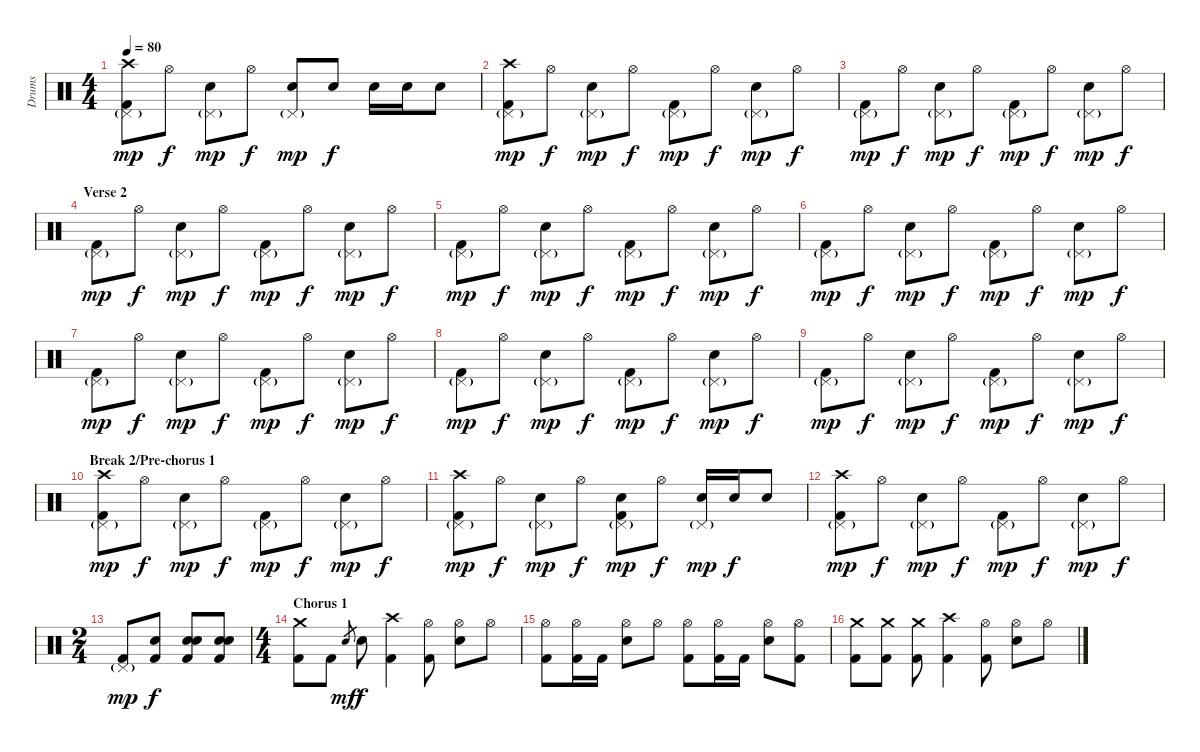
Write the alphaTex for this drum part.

\track ("Drums" "Drums") {instrument percussion}
\staff {score}
\articulation defaults
\ts (4 4)
\tempo 80
\clef neutral
\ks c
("Pedal Hi-Hat (hit)"{g} "Crash high (hit)" "Kick (hit) 2").8{dy mp} "Hi-Hat (open)".8{dy f} ("Pedal Hi-Hat (hit)"{g} "Electric Snare (hit)").8{dy mp} "Hi-Hat (open)".8{dy f} ("Pedal Hi-Hat (hit)"{g} "Electric Snare (hit)").8{dy mp} "Electric Snare (hit)".8{dy f} "Electric Snare (hit)".16 "Electric Snare (hit)".16 "Electric Snare (hit)".8 |
("Pedal Hi-Hat (hit)"{g} "Crash high (hit)" "Kick (hit) 2").8{dy mp} "Hi-Hat (open)".8{dy f} ("Pedal Hi-Hat (hit)"{g} "Electric Snare (hit)").8{dy mp} "Hi-Hat (open)".8{dy f} ("Pedal Hi-Hat (hit)"{g} "Kick (hit) 2").8{dy mp} "Hi-Hat (open)".8{dy f} ("Pedal Hi-Hat (hit)"{g} "Electric Snare (hit)").8{dy mp} "Hi-Hat (open)".8{dy f} |
("Pedal Hi-Hat (hit)"{g} "Kick (hit) 2").8{dy mp} "Hi-Hat (open)".8{dy f} ("Pedal Hi-Hat (hit)"{g} "Electric Snare (hit)").8{dy mp} "Hi-Hat (open)".8{dy f} ("Pedal Hi-Hat (hit)"{g} "Kick (hit) 2").8{dy mp} "Hi-Hat (open)".8{dy f} ("Pedal Hi-Hat (hit)"{g} "Electric Snare (hit)").8{dy mp} "Hi-Hat (open)".8{dy f} |
\section ("" "Verse 2")
("Pedal Hi-Hat (hit)"{g} "Kick (hit) 2").8{dy mp} "Hi-Hat (open)".8{dy f} ("Pedal Hi-Hat (hit)"{g} "Electric Snare (hit)").8{dy mp} "Hi-Hat (open)".8{dy f} ("Pedal Hi-Hat (hit)"{g} "Kick (hit) 2").8{dy mp} "Hi-Hat (open)".8{dy f} ("Pedal Hi-Hat (hit)"{g} "Electric Snare (hit)").8{dy mp} "Hi-Hat (open)".8{dy f} |
("Pedal Hi-Hat (hit)"{g} "Kick (hit) 2").8{dy mp} "Hi-Hat (open)".8{dy f} ("Pedal Hi-Hat (hit)"{g} "Electric Snare (hit)").8{dy mp} "Hi-Hat (open)".8{dy f} ("Pedal Hi-Hat (hit)"{g} "Kick (hit) 2").8{dy mp} "Hi-Hat (open)".8{dy f} ("Pedal Hi-Hat (hit)"{g} "Electric Snare (hit)").8{dy mp} "Hi-Hat (open)".8{dy f} |
("Pedal Hi-Hat (hit)"{g} "Kick (hit) 2").8{dy mp} "Hi-Hat (open)".8{dy f} ("Pedal Hi-Hat (hit)"{g} "Electric Snare (hit)").8{dy mp} "Hi-Hat (open)".8{dy f} ("Pedal Hi-Hat (hit)"{g} "Kick (hit) 2").8{dy mp} "Hi-Hat (open)".8{dy f} ("Pedal Hi-Hat (hit)"{g} "Electric Snare (hit)").8{dy mp} "Hi-Hat (open)".8{dy f} |
("Pedal Hi-Hat (hit)"{g} "Kick (hit) 2").8{dy mp} "Hi-Hat (open)".8{dy f} ("Pedal Hi-Hat (hit)"{g} "Electric Snare (hit)").8{dy mp} "Hi-Hat (open)".8{dy f} ("Pedal Hi-Hat (hit)"{g} "Kick (hit) 2").8{dy mp} "Hi-Hat (open)".8{dy f} ("Pedal Hi-Hat (hit)"{g} "Electric Snare (hit)").8{dy mp} "Hi-Hat (open)".8{dy f} |
("Pedal Hi-Hat (hit)"{g} "Kick (hit) 2").8{dy mp} "Hi-Hat (open)".8{dy f} ("Pedal Hi-Hat (hit)"{g} "Electric Snare (hit)").8{dy mp} "Hi-Hat (open)".8{dy f} ("Pedal Hi-Hat (hit)"{g} "Kick (hit) 2").8{dy mp} "Hi-Hat (open)".8{dy f} ("Pedal Hi-Hat (hit)"{g} "Electric Snare (hit)").8{dy mp} "Hi-Hat (open)".8{dy f} |
("Pedal Hi-Hat (hit)"{g} "Kick (hit) 2").8{dy mp} "Hi-Hat (open)".8{dy f} ("Pedal Hi-Hat (hit)"{g} "Electric Snare (hit)").8{dy mp} "Hi-Hat (open)".8{dy f} ("Pedal Hi-Hat (hit)"{g} "Kick (hit) 2").8{dy mp} "Hi-Hat (open)".8{dy f} ("Pedal Hi-Hat (hit)"{g} "Electric Snare (hit)").8{dy mp} "Hi-Hat (open)".8{dy f} |
\section ("" "Break 2/Pre-chorus 1")
("Pedal Hi-Hat (hit)"{g} "Crash high (hit)" "Kick (hit) 2").8{dy mp} "Hi-Hat (open)".8{dy f} ("Pedal Hi-Hat (hit)"{g} "Electric Snare (hit)").8{dy mp} "Hi-Hat (open)".8{dy f} ("Pedal Hi-Hat (hit)"{g} "Kick (hit) 2").8{dy mp} "Hi-Hat (open)".8{dy f} ("Pedal Hi-Hat (hit)"{g} "Electric Snare (hit)").8{dy mp} "Hi-Hat (open)".8{dy f} |
("Pedal Hi-Hat (hit)"{g} "Crash high (hit)" "Kick (hit) 2").8{dy mp} "Hi-Hat (open)".8{dy f} ("Pedal Hi-Hat (hit)"{g} "Electric Snare (hit)").8{dy mp} "Hi-Hat (open)".8{dy f} ("Pedal Hi-Hat (hit)"{g} "Electric Snare (hit)" "Kick (hit) 2").8{dy mp} "Hi-Hat (open)".8{dy f} ("Pedal Hi-Hat (hit)"{g} "Electric Snare (hit)").16{dy mp} "Electric Snare (hit)".16{dy f} "Electric Snare (hit)".8 |
("Pedal Hi-Hat (hit)"{g} "Crash high (hit)" "Kick (hit) 2").8{dy mp} "Hi-Hat (open)".8{dy f} ("Pedal Hi-Hat (hit)"{g} "Electric Snare (hit)").8{dy mp} "Hi-Hat (open)".8{dy f} ("Pedal Hi-Hat (hit)"{g} "Kick (hit) 2").8{dy mp} "Hi-Hat (open)".8{dy f} ("Pedal Hi-Hat (hit)"{g} "Electric Snare (hit)").8{dy mp} "Hi-Hat (open)".8{dy f} |
\ts (2 4)
("Pedal Hi-Hat (hit)"{g} "Kick (hit) 2").8{dy mp} ("Electric Snare (hit)" "Kick (hit) 2").8{dy f} ("Snare (hit) 2" "Electric Snare (hit)" "Kick (hit) 2").8 ("Snare (hit) 2" "Electric Snare (hit)" "Kick (hit) 2").8 |
\ts (4 4)
\section ("" "Chorus 1")
("Crash medium (hit)" "Kick (hit) 2").8 "Kick (hit) 2".8 "Electric Snare (hit)".8{gr dy mf} "Electric Snare (hit)".8{dy f} ("Crash high (hit)" "Kick (hit) 2").4 ("Hi-Hat (open)" "Kick (hit) 2").8 ("Hi-Hat (open)" "Electric Snare (hit)").8 "Hi-Hat (open)".8 |
("Hi-Hat (open)" "Kick (hit) 2").8 ("Hi-Hat (open)" "Kick (hit) 2").16 "Kick (hit) 2".16 ("Hi-Hat (open)" "Electric Snare (hit)").8 "Hi-Hat (open)".8 ("Hi-Hat (open)" "Kick (hit) 2").8 ("Hi-Hat (open)" "Kick (hit) 2").16 "Kick (hit) 2".16 ("Hi-Hat (open)" "Electric Snare (hit)").8 ("Hi-Hat (open)" "Kick (hit) 2").8 |
("Crash medium (hit)" "Kick (hit) 2").8 ("Crash medium (hit)" "Kick (hit) 2").8 ("Crash medium (hit)" "Kick (hit) 2").8 ("Crash high (hit)" "Kick (hit) 2").4 ("Hi-Hat (open)" "Kick (hit) 2").8 ("Hi-Hat (open)" "Electric Snare (hit)").8 "Hi-Hat (open)".8
